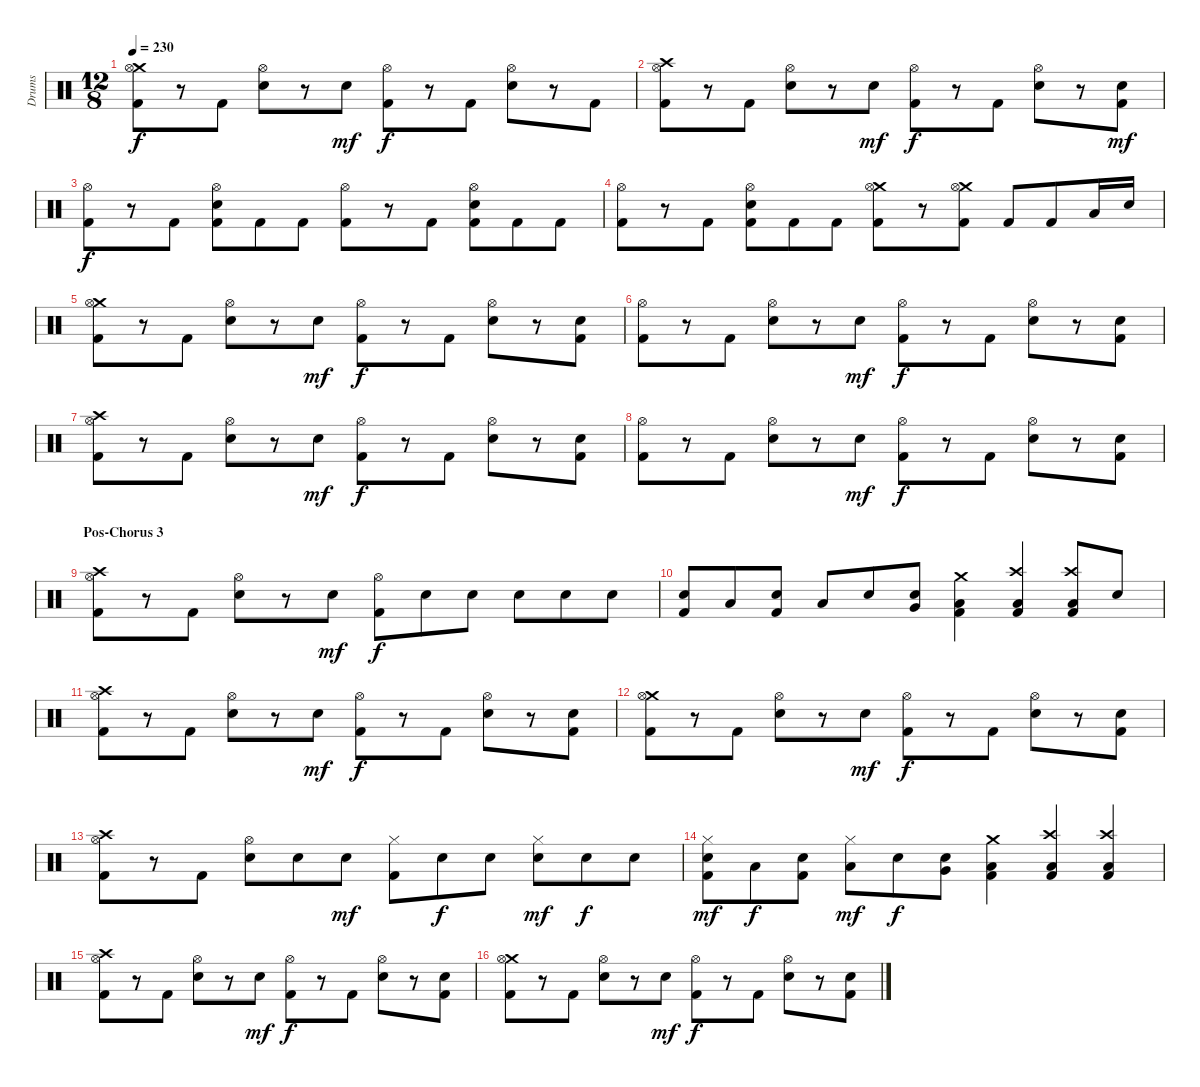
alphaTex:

\track ("Drums" "Drums") {instrument percussion}
\staff {score}
\articulation defaults
\ts (12 8)
\tempo 230
\clef neutral
\ks c
("Crash medium (hit)" "Hi-Hat (open)" "Kick (hit) 2").8{dy f} r.8 "Kick (hit) 2".8 ("Hi-Hat (open)" "Snare (hit) 2").8 r.8 "Snare (hit) 2".8{dy mf} ("Hi-Hat (open)" "Kick (hit) 2").8{dy f} r.8 "Kick (hit) 2".8 ("Hi-Hat (open)" "Snare (hit) 2").8 r.8 "Kick (hit) 2".8 |
("Crash high (hit)" "Hi-Hat (open)" "Kick (hit) 2").8 r.8 "Kick (hit) 2".8 ("Hi-Hat (open)" "Snare (hit) 2").8 r.8 "Snare (hit) 2".8{dy mf} ("Hi-Hat (open)" "Kick (hit) 2").8{dy f} r.8 "Kick (hit) 2".8 ("Hi-Hat (open)" "Snare (hit) 2").8 r.8 ("Snare (hit) 2" "Kick (hit) 2").8{dy mf} |
("Hi-Hat (open)" "Kick (hit) 2").8{dy f} r.8 "Kick (hit) 2".8 ("Hi-Hat (open)" "Snare (hit) 2" "Kick (hit) 2").8 "Kick (hit) 2".8 "Kick (hit) 2".8 ("Hi-Hat (open)" "Kick (hit) 2").8 r.8 "Kick (hit) 2".8 ("Hi-Hat (open)" "Snare (hit) 2" "Kick (hit) 2").8 "Kick (hit) 2".8 "Kick (hit) 2".8 |
("Hi-Hat (open)" "Kick (hit) 2").8 r.8 "Kick (hit) 2".8 ("Hi-Hat (open)" "Snare (hit) 2" "Kick (hit) 2").8 "Kick (hit) 2".8 "Kick (hit) 2".8 ("Crash medium (hit)" "Hi-Hat (open)" "Kick (hit) 2").8 r.8 ("Crash medium (hit)" "Hi-Hat (open)" "Kick (hit) 2").8 "Kick (hit) 2".8 "Kick (hit) 2".8 "Low Tom (hit)".16 "Snare (hit) 2".16 |
("Crash medium (hit)" "Hi-Hat (open)" "Kick (hit) 2").8 r.8 "Kick (hit) 2".8 ("Hi-Hat (open)" "Snare (hit) 2").8 r.8 "Snare (hit) 2".8{dy mf} ("Hi-Hat (open)" "Kick (hit) 2").8{dy f} r.8 "Kick (hit) 2".8 ("Hi-Hat (open)" "Snare (hit) 2").8 r.8 ("Snare (hit) 2" "Kick (hit) 2").8 |
("Hi-Hat (open)" "Kick (hit) 2").8 r.8 "Kick (hit) 2".8 ("Hi-Hat (open)" "Snare (hit) 2").8 r.8 "Snare (hit) 2".8{dy mf} ("Hi-Hat (open)" "Kick (hit) 2").8{dy f} r.8 "Kick (hit) 2".8 ("Hi-Hat (open)" "Snare (hit) 2").8 r.8 ("Snare (hit) 2" "Kick (hit) 2").8 |
("Crash high (hit)" "Hi-Hat (open)" "Kick (hit) 2").8 r.8 "Kick (hit) 2".8 ("Hi-Hat (open)" "Snare (hit) 2").8 r.8 "Snare (hit) 2".8{dy mf} ("Hi-Hat (open)" "Kick (hit) 2").8{dy f} r.8 "Kick (hit) 2".8 ("Hi-Hat (open)" "Snare (hit) 2").8 r.8 ("Snare (hit) 2" "Kick (hit) 2").8 |
("Hi-Hat (open)" "Kick (hit) 2").8 r.8 "Kick (hit) 2".8 ("Hi-Hat (open)" "Snare (hit) 2").8 r.8 "Snare (hit) 2".8{dy mf} ("Hi-Hat (open)" "Kick (hit) 2").8{dy f} r.8 "Kick (hit) 2".8 ("Hi-Hat (open)" "Snare (hit) 2").8 r.8 ("Snare (hit) 2" "Kick (hit) 2").8 |
\section ("" "Pos-Chorus 3")
("Crash high (hit)" "Hi-Hat (open)" "Kick (hit) 2").8 r.8 "Kick (hit) 2".8 ("Hi-Hat (open)" "Snare (hit) 2").8 r.8 "Snare (hit) 2".8{dy mf} ("Hi-Hat (open)" "Kick (hit) 2").8{dy f} "Snare (hit) 2".8 "Snare (hit) 2".8 "Snare (hit) 2".8 "Snare (hit) 2".8 "Snare (hit) 2".8 |
("Snare (hit) 2" "Kick (hit) 2").8 "Low Floor Tom (hit)".8 ("Snare (hit) 2" "Kick (hit) 2").8 "Low Tom (hit)".8 "Snare (hit) 2".8 ("Snare (hit) 2" "Very Low Tom (hit)").8 ("Crash medium (hit)" "Low Floor Tom (hit)" "Kick (hit) 2").4 ("Crash high (hit)" "Low Floor Tom (hit)" "Kick (hit) 2").4 ("Crash high (hit)" "Low Floor Tom (hit)" "Kick (hit) 2").8 "Snare (hit) 2".8 |
("Crash high (hit)" "Hi-Hat (open)" "Kick (hit) 2").8 r.8 "Kick (hit) 2".8 ("Hi-Hat (open)" "Snare (hit) 2").8 r.8 "Snare (hit) 2".8{dy mf} ("Hi-Hat (open)" "Kick (hit) 2").8{dy f} r.8 "Kick (hit) 2".8 ("Hi-Hat (open)" "Snare (hit) 2").8 r.8 ("Snare (hit) 2" "Kick (hit) 2").8 |
("Crash medium (hit)" "Hi-Hat (open)" "Kick (hit) 2").8 r.8 "Kick (hit) 2".8 ("Hi-Hat (open)" "Snare (hit) 2").8 r.8 "Snare (hit) 2".8{dy mf} ("Hi-Hat (open)" "Kick (hit) 2").8{dy f} r.8 "Kick (hit) 2".8 ("Hi-Hat (open)" "Snare (hit) 2").8 r.8 ("Snare (hit) 2" "Kick (hit) 2").8 |
("Crash high (hit)" "Hi-Hat (open)" "Kick (hit) 2").8 r.8 "Kick (hit) 2".8 ("Hi-Hat (open)" "Snare (hit) 2").8 "Snare (hit) 2".8 "Snare (hit) 2".8{dy mf} ("Hi-Hat (closed)" "Kick (hit) 2").8 "Snare (hit) 2".8{dy f} "Snare (hit) 2".8 ("Hi-Hat (closed)" "Snare (hit) 2").8{dy mf} "Snare (hit) 2".8{dy f} "Snare (hit) 2".8 |
("Hi-Hat (closed)" "Snare (hit) 2" "Kick (hit) 2").8{dy mf} "Low Floor Tom (hit)".8{dy f} ("Snare (hit) 2" "Kick (hit) 2").8 ("Hi-Hat (closed)" "Low Tom (hit)").8{dy mf} "Snare (hit) 2".8{dy f} ("Snare (hit) 2" "Very Low Tom (hit)").8 ("Crash medium (hit)" "Low Floor Tom (hit)" "Kick (hit) 2").4 ("Crash high (hit)" "Low Floor Tom (hit)" "Kick (hit) 2").4 ("Crash high (hit)" "Low Floor Tom (hit)" "Kick (hit) 2").4 |
("Crash high (hit)" "Hi-Hat (open)" "Kick (hit) 2").8 r.8 "Kick (hit) 2".8 ("Hi-Hat (open)" "Snare (hit) 2").8 r.8 "Snare (hit) 2".8{dy mf} ("Hi-Hat (open)" "Kick (hit) 2").8{dy f} r.8 "Kick (hit) 2".8 ("Hi-Hat (open)" "Snare (hit) 2").8 r.8 ("Snare (hit) 2" "Kick (hit) 2").8 |
("Crash medium (hit)" "Hi-Hat (open)" "Kick (hit) 2").8 r.8 "Kick (hit) 2".8 ("Hi-Hat (open)" "Snare (hit) 2").8 r.8 "Snare (hit) 2".8{dy mf} ("Hi-Hat (open)" "Kick (hit) 2").8{dy f} r.8 "Kick (hit) 2".8 ("Hi-Hat (open)" "Snare (hit) 2").8 r.8 ("Snare (hit) 2" "Kick (hit) 2").8
